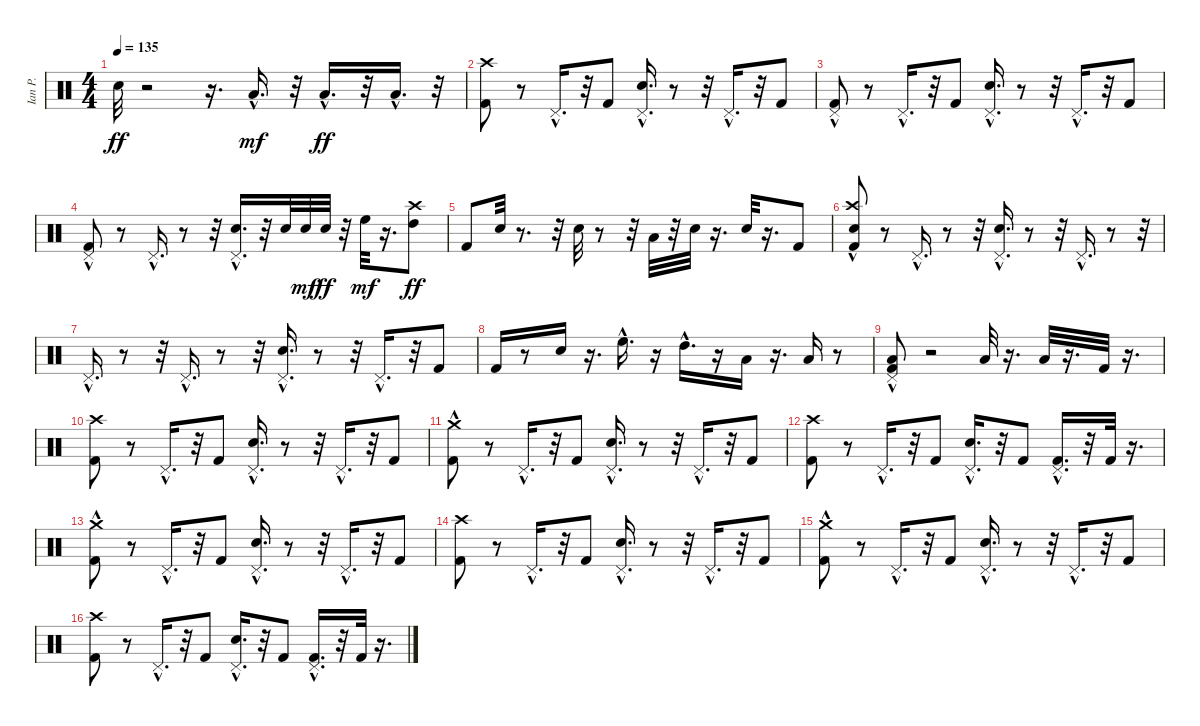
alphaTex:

\track ("Ian P." "Ian P.") {instrument percussion}
\staff {score}
\articulation defaults
\ts (4 4)
\tempo 135
\clef neutral
\ks c "Snare (hit) 2".32{dy ff}
r.2 r.16{d} "Low Tom (hit)"{hac}.16{d dy mf} r.32 "Low Floor Tom (hit)"{hac}.16{d dy ff} r.32 "Low Floor Tom (hit)"{hac}.16{d} r.32 |
("Crash high (hit)" "Kick (hit) 2").8 r.8 "Pedal Hi-Hat (hit)"{hac}.16{d} r.32 "Kick (hit) 2".8 ("Snare (hit) 2"{hac} "Pedal Hi-Hat (hit)"{hac}).16{d} r.8 r.32 "Pedal Hi-Hat (hit)"{hac}.16{d} r.32 "Kick (hit) 2".8 |
("Kick (hit) 2" "Pedal Hi-Hat (hit)"{hac}).8 r.8 "Pedal Hi-Hat (hit)"{hac}.16{d} r.32 "Kick (hit) 2".8 ("Snare (hit) 2"{hac} "Pedal Hi-Hat (hit)"{hac}).16{d} r.8 r.32 "Pedal Hi-Hat (hit)"{hac}.16{d} r.32 "Kick (hit) 2".8 |
("Kick (hit) 2" "Pedal Hi-Hat (hit)"{hac}).8 r.8 "Pedal Hi-Hat (hit)"{hac}.16{d} r.8 r.32 ("Snare (hit) 2" "Pedal Hi-Hat (hit)"{hac}).16{d} r.32 "Snare (hit) 2".32 "Snare (hit) 2".32{dy mf} "Snare (hit) 2".32{dy ff} r.32 "High Floor Tom (hit)".32{dy mf} r.16{d} ("High Tom (hit)" "Crash high (hit)").8{dy ff} |
"Kick (hit) 2".8 "Snare (hit) 2".32 r.8{d} r.32 "Snare (hit) 2".32 r.8 r.32 "Low Tom (hit)".32 r.32 "Snare (hit) 2".32 r.16{d} "Snare (hit) 2".32 r.16{d} "Kick (hit) 2".8 |
("Snare (hit) 2"{hac} "Kick (hit) 2" "Crash high (hit)").8 r.8 "Pedal Hi-Hat (hit)"{hac}.16{d} r.8 r.32 ("Snare (hit) 2"{hac} "Pedal Hi-Hat (hit)"{hac}).16{d} r.8 r.32 "Pedal Hi-Hat (hit)"{hac}.16{d} r.8 r.32 |
"Pedal Hi-Hat (hit)"{hac}.16{d} r.8 r.32 "Pedal Hi-Hat (hit)"{hac}.16{d} r.8 r.32 ("Snare (hit) 2"{hac} "Pedal Hi-Hat (hit)"{hac}).16{d} r.8 r.32 "Pedal Hi-Hat (hit)"{hac}.16{d} r.32 "Kick (hit) 2".8 |
"Kick (hit) 2".16 r.8 "Snare (hit) 2".16 r.16{d} "High Floor Tom (hit)"{hac}.16{d} r.16 "High Tom (hit)"{hac}.16{d} r.16 "Low Tom (hit)".16 r.16{d} "Low Floor Tom (hit)".16 r.8 |
("Low Floor Tom (hit)" "Kick (hit) 2" "Pedal Hi-Hat (hit)"{hac}).8 r.2 "Low Tom (hit)".32 r.16{d} "Low Floor Tom (hit)".32 r.16{d} "Kick (hit) 2".32 r.16{d} |
("Crash high (hit)" "Kick (hit) 2").8 r.8 "Pedal Hi-Hat (hit)"{hac}.16{d} r.32 "Kick (hit) 2".8 ("Snare (hit) 2"{hac} "Pedal Hi-Hat (hit)"{hac}).16{d} r.8 r.32 "Pedal Hi-Hat (hit)"{hac}.16{d} r.32 "Kick (hit) 2".8 |
("Kick (hit) 2" "Crash medium (hit)"{hac}).8 r.8 "Pedal Hi-Hat (hit)"{hac}.16{d} r.32 "Kick (hit) 2".8 ("Snare (hit) 2"{hac} "Pedal Hi-Hat (hit)"{hac}).16{d} r.8 r.32 "Pedal Hi-Hat (hit)"{hac}.16{d} r.32 "Kick (hit) 2".8 |
("Crash high (hit)" "Kick (hit) 2").8 r.8 "Pedal Hi-Hat (hit)"{hac}.16{d} r.32 "Kick (hit) 2".8 ("Snare (hit) 2"{hac} "Pedal Hi-Hat (hit)"{hac}).16{d} r.32 "Kick (hit) 2".8 ("Pedal Hi-Hat (hit)"{hac} "Kick (hit) 2").16{d} r.32 "Kick (hit) 2".32 r.16{d} |
("Kick (hit) 2" "Crash medium (hit)"{hac}).8 r.8 "Pedal Hi-Hat (hit)"{hac}.16{d} r.32 "Kick (hit) 2".8 ("Snare (hit) 2"{hac} "Pedal Hi-Hat (hit)"{hac}).16{d} r.8 r.32 "Pedal Hi-Hat (hit)"{hac}.16{d} r.32 "Kick (hit) 2".8 |
("Crash high (hit)" "Kick (hit) 2").8 r.8 "Pedal Hi-Hat (hit)"{hac}.16{d} r.32 "Kick (hit) 2".8 ("Snare (hit) 2"{hac} "Pedal Hi-Hat (hit)"{hac}).16{d} r.8 r.32 "Pedal Hi-Hat (hit)"{hac}.16{d} r.32 "Kick (hit) 2".8 |
("Kick (hit) 2" "Crash medium (hit)"{hac}).8 r.8 "Pedal Hi-Hat (hit)"{hac}.16{d} r.32 "Kick (hit) 2".8 ("Snare (hit) 2"{hac} "Pedal Hi-Hat (hit)"{hac}).16{d} r.8 r.32 "Pedal Hi-Hat (hit)"{hac}.16{d} r.32 "Kick (hit) 2".8 |
("Crash high (hit)" "Kick (hit) 2").8 r.8 "Pedal Hi-Hat (hit)"{hac}.16{d} r.32 "Kick (hit) 2".8 ("Snare (hit) 2"{hac} "Pedal Hi-Hat (hit)"{hac}).16{d} r.32 "Kick (hit) 2".8 ("Pedal Hi-Hat (hit)"{hac} "Kick (hit) 2").16{d} r.32 "Kick (hit) 2".32 r.16{d}
